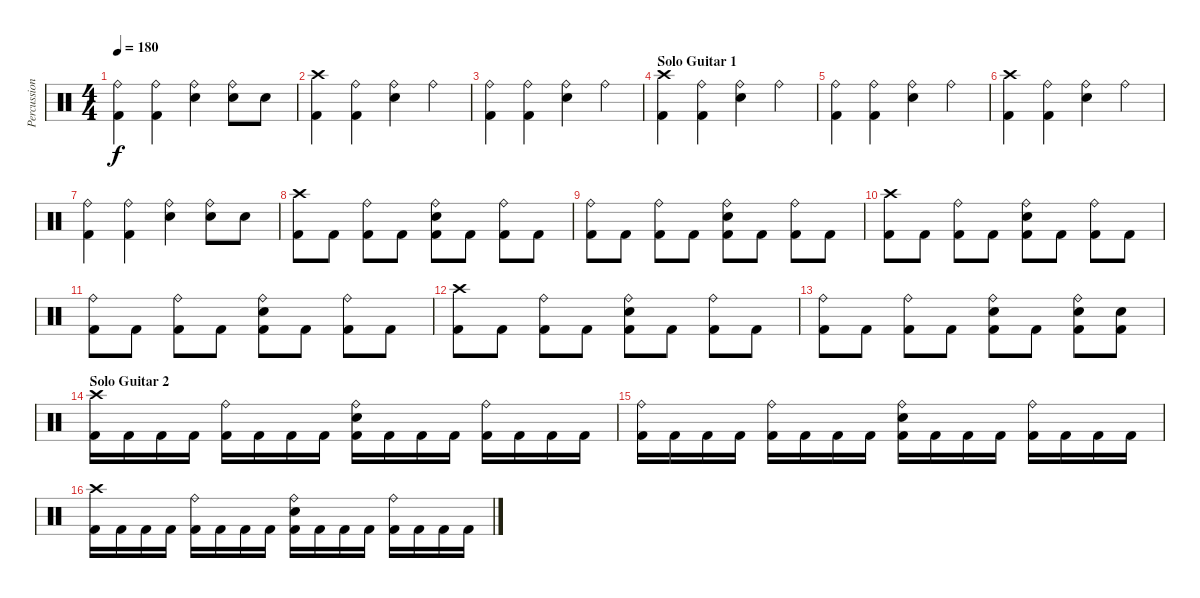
\track ("Percussion" "Percussion") {instrument percussion}
\staff {score}
\articulation defaults
\ts (4 4)
\tempo 180
\clef neutral
\ks c
("Ride (bell)" "Kick (hit) 2").4{dy f} ("Ride (bell)" "Kick (hit) 2").4 ("Ride (bell)" "Snare (hit) 2").4 ("Ride (bell)" "Snare (hit) 2").8 "Snare (hit) 2".8 |
("Crash high (hit)" "Kick (hit) 2").4 ("Ride (bell)" "Kick (hit) 2").4 ("Ride (bell)" "Snare (hit) 2").4 "Ride (bell)".4 |
("Ride (bell)" "Kick (hit) 2").4 ("Ride (bell)" "Kick (hit) 2").4 ("Ride (bell)" "Snare (hit) 2").4 "Ride (bell)".4 |
\section ("" "Solo Guitar 1")
("Crash high (hit)" "Kick (hit) 2").4 ("Ride (bell)" "Kick (hit) 2").4 ("Ride (bell)" "Snare (hit) 2").4 "Ride (bell)".4 |
("Ride (bell)" "Kick (hit) 2").4 ("Ride (bell)" "Kick (hit) 2").4 ("Ride (bell)" "Snare (hit) 2").4 "Ride (bell)".4 |
("Crash high (hit)" "Kick (hit) 2").4 ("Ride (bell)" "Kick (hit) 2").4 ("Ride (bell)" "Snare (hit) 2").4 "Ride (bell)".4 |
("Ride (bell)" "Kick (hit) 2").4 ("Ride (bell)" "Kick (hit) 2").4 ("Ride (bell)" "Snare (hit) 2").4 ("Ride (bell)" "Snare (hit) 2").8 "Snare (hit) 2".8 |
("Crash high (hit)" "Kick (hit) 2").8 "Kick (hit) 2".8 ("Ride (bell)" "Kick (hit) 2").8 "Kick (hit) 2".8 ("Ride (bell)" "Snare (hit) 2" "Kick (hit) 2").8 "Kick (hit) 2".8 ("Ride (bell)" "Kick (hit) 2").8 "Kick (hit) 2".8 |
("Ride (bell)" "Kick (hit) 2").8 "Kick (hit) 2".8 ("Ride (bell)" "Kick (hit) 2").8 "Kick (hit) 2".8 ("Ride (bell)" "Snare (hit) 2" "Kick (hit) 2").8 "Kick (hit) 2".8 ("Ride (bell)" "Kick (hit) 2").8 "Kick (hit) 2".8 |
("Crash high (hit)" "Kick (hit) 2").8 "Kick (hit) 2".8 ("Ride (bell)" "Kick (hit) 2").8 "Kick (hit) 2".8 ("Ride (bell)" "Snare (hit) 2" "Kick (hit) 2").8 "Kick (hit) 2".8 ("Ride (bell)" "Kick (hit) 2").8 "Kick (hit) 2".8 |
("Ride (bell)" "Kick (hit) 2").8 "Kick (hit) 2".8 ("Ride (bell)" "Kick (hit) 2").8 "Kick (hit) 2".8 ("Ride (bell)" "Snare (hit) 2" "Kick (hit) 2").8 "Kick (hit) 2".8 ("Ride (bell)" "Kick (hit) 2").8 "Kick (hit) 2".8 |
("Crash high (hit)" "Kick (hit) 2").8 "Kick (hit) 2".8 ("Ride (bell)" "Kick (hit) 2").8 "Kick (hit) 2".8 ("Ride (bell)" "Snare (hit) 2" "Kick (hit) 2").8 "Kick (hit) 2".8 ("Ride (bell)" "Kick (hit) 2").8 "Kick (hit) 2".8 |
("Ride (bell)" "Kick (hit) 2").8 "Kick (hit) 2".8 ("Ride (bell)" "Kick (hit) 2").8 "Kick (hit) 2".8 ("Ride (bell)" "Snare (hit) 2" "Kick (hit) 2").8 "Kick (hit) 2".8 ("Ride (bell)" "Snare (hit) 2" "Kick (hit) 2").8 ("Snare (hit) 2" "Kick (hit) 2").8 |
\section ("" "Solo Guitar 2")
("Crash high (hit)" "Kick (hit) 2").16 "Kick (hit) 2".16 "Kick (hit) 2".16 "Kick (hit) 2".16 ("Ride (bell)" "Kick (hit) 2").16 "Kick (hit) 2".16 "Kick (hit) 2".16 "Kick (hit) 2".16 ("Ride (bell)" "Snare (hit) 2" "Kick (hit) 2").16 "Kick (hit) 2".16 "Kick (hit) 2".16 "Kick (hit) 2".16 ("Ride (bell)" "Kick (hit) 2").16 "Kick (hit) 2".16 "Kick (hit) 2".16 "Kick (hit) 2".16 |
("Ride (bell)" "Kick (hit) 2").16 "Kick (hit) 2".16 "Kick (hit) 2".16 "Kick (hit) 2".16 ("Ride (bell)" "Kick (hit) 2").16 "Kick (hit) 2".16 "Kick (hit) 2".16 "Kick (hit) 2".16 ("Ride (bell)" "Snare (hit) 2" "Kick (hit) 2").16 "Kick (hit) 2".16 "Kick (hit) 2".16 "Kick (hit) 2".16 ("Ride (bell)" "Kick (hit) 2").16 "Kick (hit) 2".16 "Kick (hit) 2".16 "Kick (hit) 2".16 |
("Crash high (hit)" "Kick (hit) 2").16 "Kick (hit) 2".16 "Kick (hit) 2".16 "Kick (hit) 2".16 ("Ride (bell)" "Kick (hit) 2").16 "Kick (hit) 2".16 "Kick (hit) 2".16 "Kick (hit) 2".16 ("Ride (bell)" "Snare (hit) 2" "Kick (hit) 2").16 "Kick (hit) 2".16 "Kick (hit) 2".16 "Kick (hit) 2".16 ("Ride (bell)" "Kick (hit) 2").16 "Kick (hit) 2".16 "Kick (hit) 2".16 "Kick (hit) 2".16
